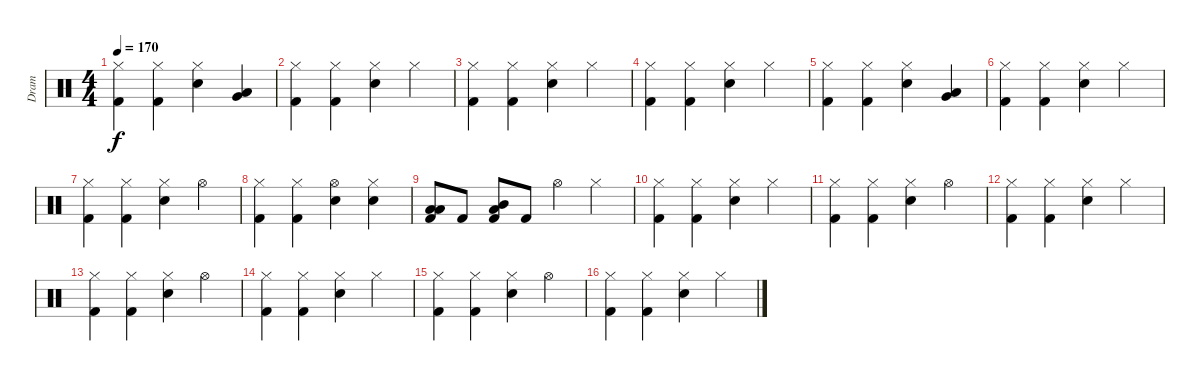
\track ("Dram" "Dram") {instrument percussion}
\staff {score}
\articulation defaults
\ts (4 4)
\tempo 170
\clef neutral
\ks c
("Hi-Hat (closed)" "Kick (hit) 2").4{dy f} ("Hi-Hat (closed)" "Kick (hit) 2").4 ("Hi-Hat (closed)" "Electric Snare (hit)").4 ("Low Tom (hit)" "Very Low Tom (hit)").4 |
("Hi-Hat (closed)" "Kick (hit) 2").4 ("Hi-Hat (closed)" "Kick (hit) 2").4 ("Hi-Hat (closed)" "Electric Snare (hit)").4 "Hi-Hat (closed)".4 |
("Hi-Hat (closed)" "Kick (hit) 2").4 ("Hi-Hat (closed)" "Kick (hit) 2").4 ("Hi-Hat (closed)" "Electric Snare (hit)").4 "Hi-Hat (closed)".4 |
("Hi-Hat (closed)" "Kick (hit) 2").4 ("Hi-Hat (closed)" "Kick (hit) 2").4 ("Hi-Hat (closed)" "Electric Snare (hit)").4 "Hi-Hat (closed)".4 |
("Hi-Hat (closed)" "Kick (hit) 2").4 ("Hi-Hat (closed)" "Kick (hit) 2").4 ("Hi-Hat (closed)" "Electric Snare (hit)").4 ("Low Tom (hit)" "Very Low Tom (hit)").4 |
("Hi-Hat (closed)" "Kick (hit) 2").4 ("Hi-Hat (closed)" "Kick (hit) 2").4 ("Hi-Hat (closed)" "Electric Snare (hit)").4 "Hi-Hat (closed)".4 |
("Hi-Hat (closed)" "Kick (hit) 2").4 ("Hi-Hat (closed)" "Kick (hit) 2").4 ("Hi-Hat (closed)" "Electric Snare (hit)").4 "Hi-Hat (open)".4 |
("Hi-Hat (closed)" "Kick (hit) 2").4 ("Hi-Hat (closed)" "Kick (hit) 2").4 ("Hi-Hat (open)" "Electric Snare (hit)").4 ("Hi-Hat (closed)" "Electric Snare (hit)").4 |
("Low Floor Tom (hit)" "Low Tom (hit)" "Kick (hit) 2").8 "Kick (hit) 2".8 ("Low Tom (hit)" "Mid Tom (hit)" "Kick (hit) 2").8 "Kick (hit) 2".8 "Hi-Hat (open)".4 "Hi-Hat (closed)".4 |
("Hi-Hat (closed)" "Kick (hit) 2").4 ("Hi-Hat (closed)" "Kick (hit) 2").4 ("Hi-Hat (closed)" "Electric Snare (hit)").4 "Hi-Hat (closed)".4 |
("Hi-Hat (closed)" "Kick (hit) 2").4 ("Hi-Hat (closed)" "Kick (hit) 2").4 ("Hi-Hat (closed)" "Electric Snare (hit)").4 "Hi-Hat (open)".4 |
("Hi-Hat (closed)" "Kick (hit) 2").4 ("Hi-Hat (closed)" "Kick (hit) 2").4 ("Hi-Hat (closed)" "Electric Snare (hit)").4 "Hi-Hat (closed)".4 |
("Hi-Hat (closed)" "Kick (hit) 2").4 ("Hi-Hat (closed)" "Kick (hit) 2").4 ("Hi-Hat (closed)" "Electric Snare (hit)").4 "Hi-Hat (open)".4 |
("Hi-Hat (closed)" "Kick (hit) 2").4 ("Hi-Hat (closed)" "Kick (hit) 2").4 ("Hi-Hat (closed)" "Electric Snare (hit)").4 "Hi-Hat (closed)".4 |
("Hi-Hat (closed)" "Kick (hit) 2").4 ("Hi-Hat (closed)" "Kick (hit) 2").4 ("Hi-Hat (closed)" "Electric Snare (hit)").4 "Hi-Hat (open)".4 |
("Hi-Hat (closed)" "Kick (hit) 2").4 ("Hi-Hat (closed)" "Kick (hit) 2").4 ("Hi-Hat (closed)" "Electric Snare (hit)").4 "Hi-Hat (closed)".4
